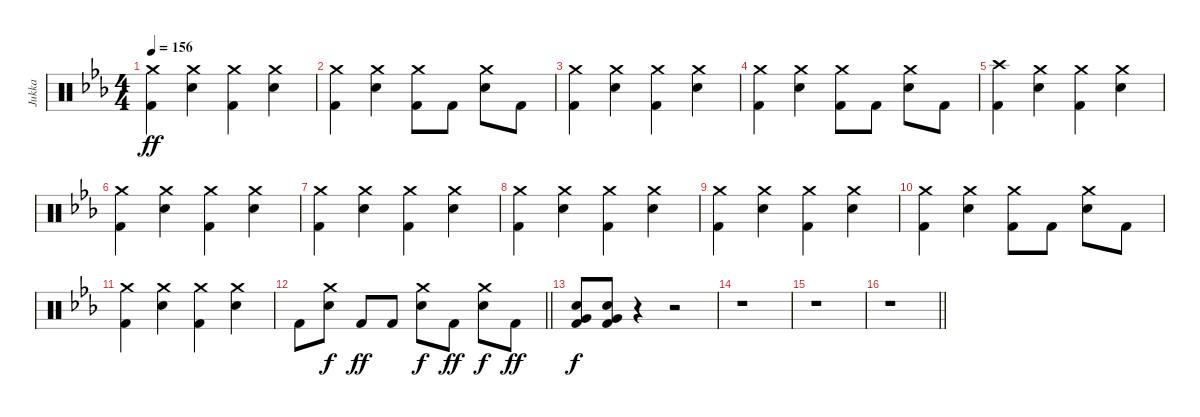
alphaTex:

\track ("Jukka" "Jukka") {instrument percussion}
\staff {score}
\articulation defaults
\ts (4 4)
\tempo 156
\clef neutral
\ks cminor
("Crash medium (hit)" "Kick (hit) 2").4{dy ff} ("Crash medium (hit)" "Electric Snare (hit)").4 ("Crash medium (hit)" "Kick (hit) 2").4 ("Crash medium (hit)" "Electric Snare (hit)").4 |
("Crash medium (hit)" "Kick (hit) 2").4 ("Crash medium (hit)" "Electric Snare (hit)").4 ("Crash medium (hit)" "Kick (hit) 2").8 "Kick (hit) 2".8 ("Crash medium (hit)" "Electric Snare (hit)").8 "Kick (hit) 2".8 |
("Crash medium (hit)" "Kick (hit) 2").4 ("Crash medium (hit)" "Electric Snare (hit)").4 ("Crash medium (hit)" "Kick (hit) 2").4 ("Crash medium (hit)" "Electric Snare (hit)").4 |
("Crash medium (hit)" "Kick (hit) 2").4 ("Crash medium (hit)" "Electric Snare (hit)").4 ("Crash medium (hit)" "Kick (hit) 2").8 "Kick (hit) 2".8 ("Crash medium (hit)" "Electric Snare (hit)").8 "Kick (hit) 2".8 |
("Crash high (hit)" "Kick (hit) 2").4 ("Crash medium (hit)" "Electric Snare (hit)").4 ("Crash medium (hit)" "Kick (hit) 2").4 ("Crash medium (hit)" "Electric Snare (hit)").4 |
("Crash medium (hit)" "Kick (hit) 2").4 ("Crash medium (hit)" "Electric Snare (hit)").4 ("Crash medium (hit)" "Kick (hit) 2").4 ("Crash medium (hit)" "Electric Snare (hit)").4 |
("Crash medium (hit)" "Kick (hit) 2").4 ("Crash medium (hit)" "Electric Snare (hit)").4 ("Crash medium (hit)" "Kick (hit) 2").4 ("Crash medium (hit)" "Electric Snare (hit)").4 |
("Crash medium (hit)" "Kick (hit) 2").4 ("Crash medium (hit)" "Electric Snare (hit)").4 ("Crash medium (hit)" "Kick (hit) 2").4 ("Crash medium (hit)" "Electric Snare (hit)").4 |
("Crash medium (hit)" "Kick (hit) 2").4 ("Crash medium (hit)" "Electric Snare (hit)").4 ("Crash medium (hit)" "Kick (hit) 2").4 ("Crash medium (hit)" "Electric Snare (hit)").4 |
("Crash medium (hit)" "Kick (hit) 2").4 ("Crash medium (hit)" "Electric Snare (hit)").4 ("Crash medium (hit)" "Kick (hit) 2").8 "Kick (hit) 2".8 ("Crash medium (hit)" "Electric Snare (hit)").8 "Kick (hit) 2".8 |
("Crash medium (hit)" "Kick (hit) 2").4 ("Crash medium (hit)" "Electric Snare (hit)").4 ("Crash medium (hit)" "Kick (hit) 2").4 ("Crash medium (hit)" "Electric Snare (hit)").4 |
\barLineRight lightlight "Kick (hit) 2".8
("Crash medium (hit)" "Electric Snare (hit)").8{dy f} "Kick (hit) 2".8{dy ff} "Kick (hit) 2".8 ("Crash medium (hit)" "Electric Snare (hit)").8{dy f} "Kick (hit) 2".8{dy ff} ("Crash medium (hit)" "Electric Snare (hit)").8{dy f} "Kick (hit) 2".8{dy ff} |
("Very Low Tom (hit)" "Electric Snare (hit)" "Kick (hit) 2").8{dy f} ("Very Low Tom (hit)" "Electric Snare (hit)" "Kick (hit) 2").8 r.4 r.2 |
r.1 |
r.1 |
\barLineRight lightlight
r.1
